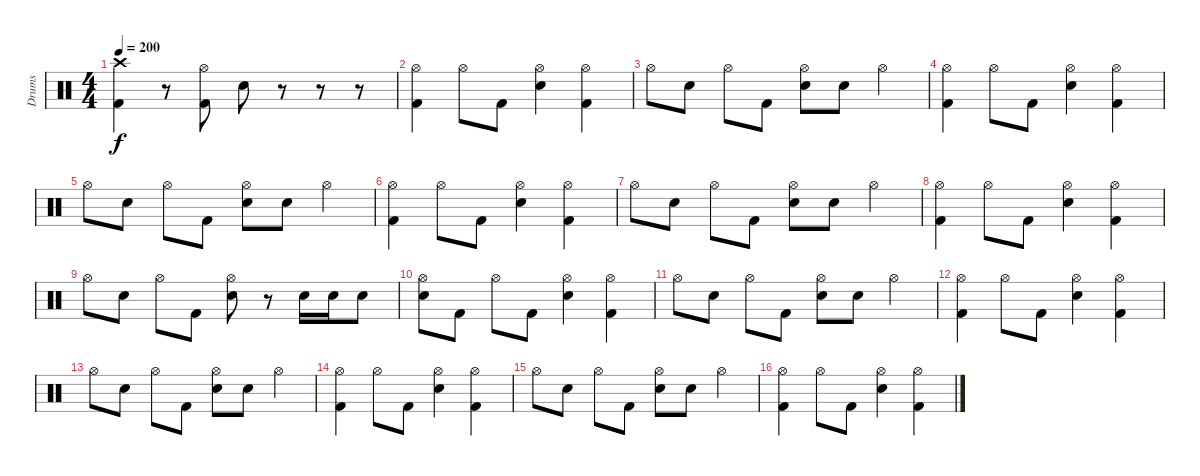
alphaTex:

\track ("Drums" "Drums") {instrument percussion}
\staff {score}
\articulation defaults
\ts (4 4)
\tempo 200
\clef neutral
\ks c
("Crash high (hit)" "Kick (hit) 2").4{dy f} r.8 ("Hi-Hat (open)" "Kick (hit) 2").8 "Electric Snare (hit)".8 r.8 r.8 r.8 |
("Hi-Hat (open)" "Kick (hit) 2").4 "Hi-Hat (open)".8 "Kick (hit) 2".8 ("Hi-Hat (open)" "Electric Snare (hit)").4 ("Hi-Hat (open)" "Kick (hit) 2").4 |
"Hi-Hat (open)".8 "Electric Snare (hit)".8 "Hi-Hat (open)".8 "Kick (hit) 2".8 ("Hi-Hat (open)" "Electric Snare (hit)").8 "Electric Snare (hit)".8 "Hi-Hat (open)".4 |
("Hi-Hat (open)" "Kick (hit) 2").4 "Hi-Hat (open)".8 "Kick (hit) 2".8 ("Hi-Hat (open)" "Electric Snare (hit)").4 ("Hi-Hat (open)" "Kick (hit) 2").4 |
"Hi-Hat (open)".8 "Electric Snare (hit)".8 "Hi-Hat (open)".8 "Kick (hit) 2".8 ("Hi-Hat (open)" "Electric Snare (hit)").8 "Electric Snare (hit)".8 "Hi-Hat (open)".4 |
("Hi-Hat (open)" "Kick (hit) 2").4 "Hi-Hat (open)".8 "Kick (hit) 2".8 ("Hi-Hat (open)" "Electric Snare (hit)").4 ("Hi-Hat (open)" "Kick (hit) 2").4 |
"Hi-Hat (open)".8 "Electric Snare (hit)".8 "Hi-Hat (open)".8 "Kick (hit) 2".8 ("Hi-Hat (open)" "Electric Snare (hit)").8 "Electric Snare (hit)".8 "Hi-Hat (open)".4 |
("Hi-Hat (open)" "Kick (hit) 2").4 "Hi-Hat (open)".8 "Kick (hit) 2".8 ("Hi-Hat (open)" "Electric Snare (hit)").4 ("Hi-Hat (open)" "Kick (hit) 2").4 |
"Hi-Hat (open)".8 "Electric Snare (hit)".8 "Hi-Hat (open)".8 "Kick (hit) 2".8 ("Hi-Hat (open)" "Electric Snare (hit)").8 r.8 "Electric Snare (hit)".16 "Electric Snare (hit)".16 "Electric Snare (hit)".8 |
("Hi-Hat (open)" "Electric Snare (hit)").8 "Kick (hit) 2".8 "Hi-Hat (open)".8 "Kick (hit) 2".8 ("Hi-Hat (open)" "Electric Snare (hit)").4 ("Hi-Hat (open)" "Kick (hit) 2").4 |
"Hi-Hat (open)".8 "Electric Snare (hit)".8 "Hi-Hat (open)".8 "Kick (hit) 2".8 ("Hi-Hat (open)" "Electric Snare (hit)").8 "Electric Snare (hit)".8 "Hi-Hat (open)".4 |
("Hi-Hat (open)" "Kick (hit) 2").4 "Hi-Hat (open)".8 "Kick (hit) 2".8 ("Hi-Hat (open)" "Electric Snare (hit)").4 ("Hi-Hat (open)" "Kick (hit) 2").4 |
"Hi-Hat (open)".8 "Electric Snare (hit)".8 "Hi-Hat (open)".8 "Kick (hit) 2".8 ("Hi-Hat (open)" "Electric Snare (hit)").8 "Electric Snare (hit)".8 "Hi-Hat (open)".4 |
("Hi-Hat (open)" "Kick (hit) 2").4 "Hi-Hat (open)".8 "Kick (hit) 2".8 ("Hi-Hat (open)" "Electric Snare (hit)").4 ("Hi-Hat (open)" "Kick (hit) 2").4 |
"Hi-Hat (open)".8 "Electric Snare (hit)".8 "Hi-Hat (open)".8 "Kick (hit) 2".8 ("Hi-Hat (open)" "Electric Snare (hit)").8 "Electric Snare (hit)".8 "Hi-Hat (open)".4 |
("Hi-Hat (open)" "Kick (hit) 2").4 "Hi-Hat (open)".8 "Kick (hit) 2".8 ("Hi-Hat (open)" "Electric Snare (hit)").4 ("Hi-Hat (open)" "Kick (hit) 2").4
